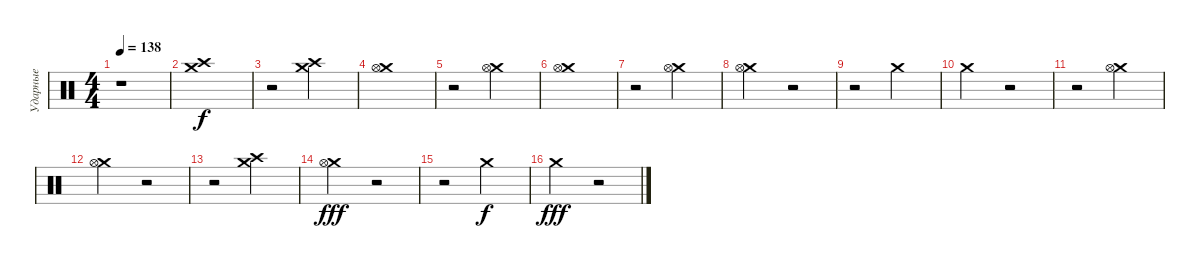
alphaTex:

\track ("Ударные" "Ударные") {instrument percussion}
\staff {score}
\articulation defaults
\ts (4 4)
\tempo 138
\clef neutral
\ks c
r.1{dy f} |
("Crash medium (hit)" "Crash high (hit)").1 |
r.2 ("Crash medium (hit)" "Crash high (hit)").2{volume 2} |
("Crash medium (hit)" "Hi-Hat (open)").1{volume 15} |
r.2 ("Crash medium (hit)" "Hi-Hat (open)").2{volume 2} |
("Crash medium (hit)" "Hi-Hat (open)").1{volume 15} |
r.2 ("Crash medium (hit)" "Hi-Hat (open)").2{volume 2} |
("Crash medium (hit)" "Hi-Hat (open)").2{volume 15} r.2 |
r.2 "Crash medium (hit)".2{volume 2} |
"Crash medium (hit)".2{volume 15} r.2 |
r.2 ("Crash medium (hit)" "Hi-Hat (open)").2{volume 2} |
("Crash medium (hit)" "Hi-Hat (open)").2{volume 15} r.2 |
r.2 ("Crash medium (hit)" "Crash high (hit)").2{volume 2} |
("Crash medium (hit)" "Hi-Hat (open)").2{dy fff volume 15} r.2 |
r.2 "Crash medium (hit)".2{dy f volume 2} |
"Crash medium (hit)".2{dy fff volume 15} r.2
